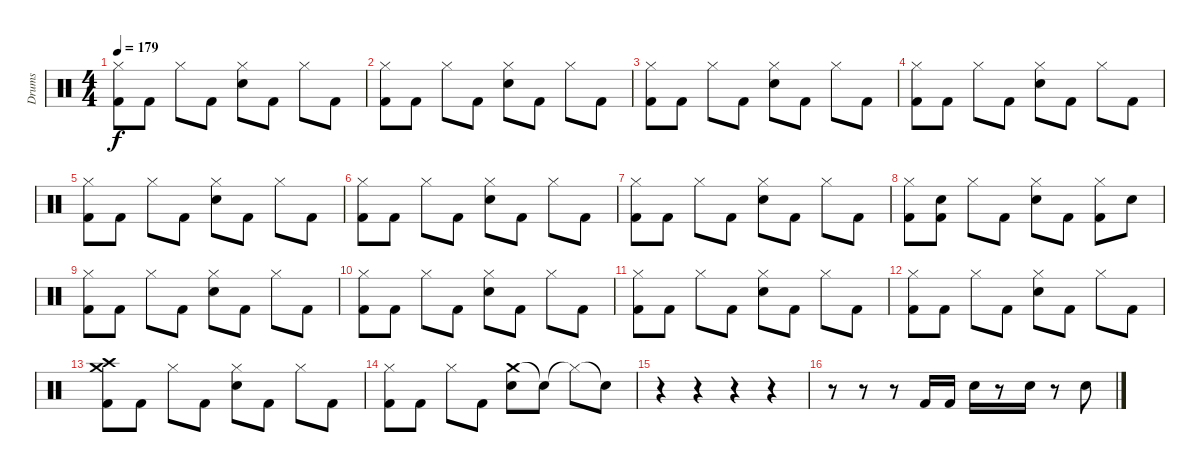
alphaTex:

\track ("Drums" "Drums") {instrument percussion}
\staff {score}
\articulation defaults
\ts (4 4)
\tempo 179
\clef neutral
\ks c
("Hi-Hat (closed)" "Kick (hit) 2").8{dy f volume 16} "Kick (hit) 2".8 "Hi-Hat (closed)".8 "Kick (hit) 2".8 ("Hi-Hat (closed)" "Electric Snare (hit)").8 "Kick (hit) 2".8 "Hi-Hat (closed)".8 "Kick (hit) 2".8 |
("Hi-Hat (closed)" "Kick (hit) 2").8 "Kick (hit) 2".8 "Hi-Hat (closed)".8 "Kick (hit) 2".8 ("Hi-Hat (closed)" "Electric Snare (hit)").8 "Kick (hit) 2".8 "Hi-Hat (closed)".8 "Kick (hit) 2".8 |
("Hi-Hat (closed)" "Kick (hit) 2").8 "Kick (hit) 2".8 "Hi-Hat (closed)".8 "Kick (hit) 2".8 ("Hi-Hat (closed)" "Electric Snare (hit)").8 "Kick (hit) 2".8 "Hi-Hat (closed)".8 "Kick (hit) 2".8 |
("Hi-Hat (closed)" "Kick (hit) 2").8 "Kick (hit) 2".8 "Hi-Hat (closed)".8 "Kick (hit) 2".8 ("Hi-Hat (closed)" "Electric Snare (hit)").8 "Kick (hit) 2".8 "Hi-Hat (closed)".8 "Kick (hit) 2".8 |
("Hi-Hat (closed)" "Kick (hit) 2").8 "Kick (hit) 2".8 "Hi-Hat (closed)".8 "Kick (hit) 2".8 ("Hi-Hat (closed)" "Electric Snare (hit)").8 "Kick (hit) 2".8 "Hi-Hat (closed)".8 "Kick (hit) 2".8 |
("Hi-Hat (closed)" "Kick (hit) 2").8 "Kick (hit) 2".8 "Hi-Hat (closed)".8 "Kick (hit) 2".8 ("Hi-Hat (closed)" "Electric Snare (hit)").8 "Kick (hit) 2".8 "Hi-Hat (closed)".8 "Kick (hit) 2".8 |
("Hi-Hat (closed)" "Kick (hit) 2").8 "Kick (hit) 2".8 "Hi-Hat (closed)".8 "Kick (hit) 2".8 ("Hi-Hat (closed)" "Electric Snare (hit)").8 "Kick (hit) 2".8 "Hi-Hat (closed)".8 "Kick (hit) 2".8 |
("Hi-Hat (closed)" "Kick (hit) 2").8 ("Electric Snare (hit)" "Kick (hit) 2").8 "Hi-Hat (closed)".8 "Kick (hit) 2".8 ("Hi-Hat (closed)" "Electric Snare (hit)").8 "Kick (hit) 2".8 ("Hi-Hat (closed)" "Kick (hit) 2").8 "Electric Snare (hit)".8 |
("Hi-Hat (closed)" "Kick (hit) 2").8 "Kick (hit) 2".8 "Hi-Hat (closed)".8 "Kick (hit) 2".8 ("Hi-Hat (closed)" "Electric Snare (hit)").8 "Kick (hit) 2".8 "Hi-Hat (closed)".8 "Kick (hit) 2".8 |
("Hi-Hat (closed)" "Kick (hit) 2").8 "Kick (hit) 2".8 "Hi-Hat (closed)".8 "Kick (hit) 2".8 ("Hi-Hat (closed)" "Electric Snare (hit)").8 "Kick (hit) 2".8 "Hi-Hat (closed)".8 "Kick (hit) 2".8 |
("Hi-Hat (closed)" "Kick (hit) 2").8 "Kick (hit) 2".8 "Hi-Hat (closed)".8 "Kick (hit) 2".8 ("Hi-Hat (closed)" "Electric Snare (hit)").8 "Kick (hit) 2".8 "Hi-Hat (closed)".8 "Kick (hit) 2".8 |
("Hi-Hat (closed)" "Kick (hit) 2").8 "Kick (hit) 2".8 "Hi-Hat (closed)".8 "Kick (hit) 2".8 ("Hi-Hat (closed)" "Electric Snare (hit)").8 "Kick (hit) 2".8 "Hi-Hat (closed)".8 "Kick (hit) 2".8 |
("Crash high (hit)" "Crash medium (hit)" "Kick (hit) 2").8 "Kick (hit) 2".8 "Hi-Hat (closed)".8 "Kick (hit) 2".8 ("Hi-Hat (closed)" "Electric Snare (hit)").8 "Kick (hit) 2".8 "Hi-Hat (closed)".8 "Kick (hit) 2".8 |
("Hi-Hat (closed)" "Kick (hit) 2").8 "Kick (hit) 2".8 "Hi-Hat (closed)".8 "Kick (hit) 2".8 ("Crash medium (hit)" "Electric Snare (hit)").8 "Snare (hit)"{t}.8 "Hi-Hat (closed)"{t}.8 "Snare (hit)"{t}.8 |
r.4 r.4 r.4 r.4 |
r.8 r.8 r.8 "Kick (hit) 2".16 "Kick (hit) 2".16 "Electric Snare (hit)".16 r.8 "Electric Snare (hit)".16 r.8 "Electric Snare (hit)".8
